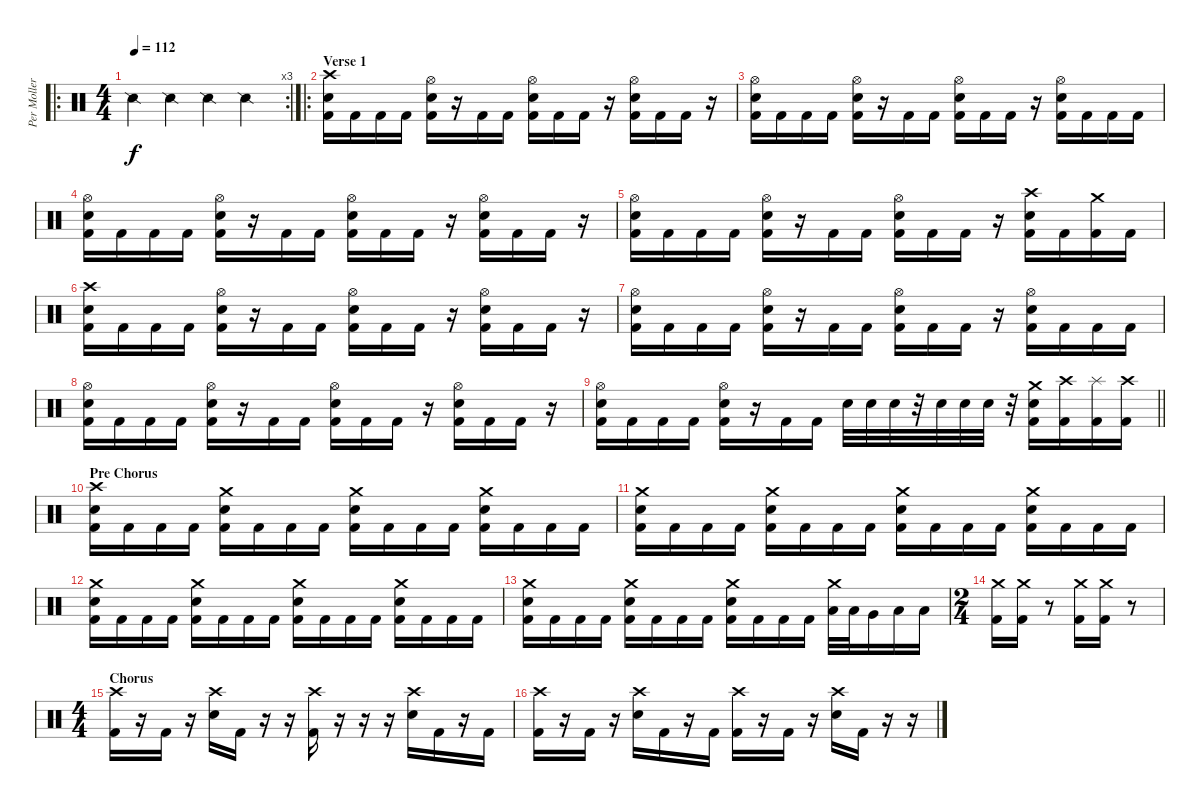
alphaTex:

\track ("Per Moller Jensen" "Per Moller") {instrument percussion}
\staff {score}
\articulation defaults
\ro
\rc 3
\ts (4 4)
\tempo 112
\clef neutral
\ks c "Snare (side stick) 2".4{dy f} "Snare (side stick) 2".4 "Snare (side stick) 2".4 "Snare (side stick) 2".4
|
\ro
\section ("" "Verse 1")
("Crash high (hit)" "Electric Snare (hit)" "Kick (hit) 2").16 "Kick (hit) 2".16 "Kick (hit) 2".16 "Kick (hit) 2".16 ("Hi-Hat (open)" "Electric Snare (hit)" "Kick (hit) 2").16 r.16 "Kick (hit) 2".16 "Kick (hit) 2".16 ("Hi-Hat (open)" "Electric Snare (hit)" "Kick (hit) 2").16 "Kick (hit) 2".16 "Kick (hit) 2".16 r.16 ("Hi-Hat (open)" "Electric Snare (hit)" "Kick (hit) 2").16 "Kick (hit) 2".16 "Kick (hit) 2".16 r.16 |
("Hi-Hat (open)" "Electric Snare (hit)" "Kick (hit) 2").16 "Kick (hit) 2".16 "Kick (hit) 2".16 "Kick (hit) 2".16 ("Hi-Hat (open)" "Electric Snare (hit)" "Kick (hit) 2").16 r.16 "Kick (hit) 2".16 "Kick (hit) 2".16 ("Hi-Hat (open)" "Electric Snare (hit)" "Kick (hit) 2").16 "Kick (hit) 2".16 "Kick (hit) 2".16 r.16 ("Hi-Hat (open)" "Electric Snare (hit)" "Kick (hit) 2").16 "Kick (hit) 2".16 "Kick (hit) 2".16 "Kick (hit) 2".16 |
("Hi-Hat (open)" "Electric Snare (hit)" "Kick (hit) 2").16 "Kick (hit) 2".16 "Kick (hit) 2".16 "Kick (hit) 2".16 ("Hi-Hat (open)" "Electric Snare (hit)" "Kick (hit) 2").16 r.16 "Kick (hit) 2".16 "Kick (hit) 2".16 ("Hi-Hat (open)" "Electric Snare (hit)" "Kick (hit) 2").16 "Kick (hit) 2".16 "Kick (hit) 2".16 r.16 ("Hi-Hat (open)" "Electric Snare (hit)" "Kick (hit) 2").16 "Kick (hit) 2".16 "Kick (hit) 2".16 r.16 |
("Hi-Hat (open)" "Electric Snare (hit)" "Kick (hit) 2").16 "Kick (hit) 2".16 "Kick (hit) 2".16 "Kick (hit) 2".16 ("Hi-Hat (open)" "Electric Snare (hit)" "Kick (hit) 2").16 r.16 "Kick (hit) 2".16 "Kick (hit) 2".16 ("Hi-Hat (open)" "Electric Snare (hit)" "Kick (hit) 2").16 "Kick (hit) 2".16 "Kick (hit) 2".16 r.16 ("Crash high (hit)" "Electric Snare (hit)" "Kick (hit) 2").16 "Kick (hit) 2".16 ("Crash medium (hit)" "Kick (hit) 2").16 "Kick (hit) 2".16 |
("Crash high (hit)" "Electric Snare (hit)" "Kick (hit) 2").16 "Kick (hit) 2".16 "Kick (hit) 2".16 "Kick (hit) 2".16 ("Hi-Hat (open)" "Electric Snare (hit)" "Kick (hit) 2").16 r.16 "Kick (hit) 2".16 "Kick (hit) 2".16 ("Hi-Hat (open)" "Electric Snare (hit)" "Kick (hit) 2").16 "Kick (hit) 2".16 "Kick (hit) 2".16 r.16 ("Hi-Hat (open)" "Electric Snare (hit)" "Kick (hit) 2").16 "Kick (hit) 2".16 "Kick (hit) 2".16 r.16 |
("Hi-Hat (open)" "Electric Snare (hit)" "Kick (hit) 2").16 "Kick (hit) 2".16 "Kick (hit) 2".16 "Kick (hit) 2".16 ("Hi-Hat (open)" "Electric Snare (hit)" "Kick (hit) 2").16 r.16 "Kick (hit) 2".16 "Kick (hit) 2".16 ("Hi-Hat (open)" "Electric Snare (hit)" "Kick (hit) 2").16 "Kick (hit) 2".16 "Kick (hit) 2".16 r.16 ("Hi-Hat (open)" "Electric Snare (hit)" "Kick (hit) 2").16 "Kick (hit) 2".16 "Kick (hit) 2".16 "Kick (hit) 2".16 |
("Hi-Hat (open)" "Electric Snare (hit)" "Kick (hit) 2").16 "Kick (hit) 2".16 "Kick (hit) 2".16 "Kick (hit) 2".16 ("Hi-Hat (open)" "Electric Snare (hit)" "Kick (hit) 2").16 r.16 "Kick (hit) 2".16 "Kick (hit) 2".16 ("Hi-Hat (open)" "Electric Snare (hit)" "Kick (hit) 2").16 "Kick (hit) 2".16 "Kick (hit) 2".16 r.16 ("Hi-Hat (open)" "Electric Snare (hit)" "Kick (hit) 2").16 "Kick (hit) 2".16 "Kick (hit) 2".16 r.16 |
\barLineRight lightlight
("Hi-Hat (open)" "Electric Snare (hit)" "Kick (hit) 2").16 "Kick (hit) 2".16 "Kick (hit) 2".16 "Kick (hit) 2".16 ("Hi-Hat (open)" "Electric Snare (hit)" "Kick (hit) 2").16 r.16 "Kick (hit) 2".16 "Kick (hit) 2".16 "Electric Snare (hit)".32 "Electric Snare (hit)".32 "Electric Snare (hit)".32 r.32 "Electric Snare (hit)".32 "Electric Snare (hit)".32 "Electric Snare (hit)".32 r.32 ("Crash medium (hit)" "Electric Snare (hit)" "Kick (hit) 2").16 ("Crash high (hit)" "Kick (hit) 2").16 ("Splash (hit)" "Kick (hit) 2").16 ("Crash high (hit)" "Kick (hit) 2").16 |
\section ("" "Pre Chorus")
("Crash high (hit)" "Electric Snare (hit)" "Kick (hit) 2").16 "Kick (hit) 2".16 "Kick (hit) 2".16 "Kick (hit) 2".16 ("Crash medium (hit)" "Electric Snare (hit)" "Kick (hit) 2").16 "Kick (hit) 2".16 "Kick (hit) 2".16 "Kick (hit) 2".16 ("Crash medium (hit)" "Electric Snare (hit)" "Kick (hit) 2").16 "Kick (hit) 2".16 "Kick (hit) 2".16 "Kick (hit) 2".16 ("Crash medium (hit)" "Electric Snare (hit)" "Kick (hit) 2").16 "Kick (hit) 2".16 "Kick (hit) 2".16 "Kick (hit) 2".16 |
("Crash medium (hit)" "Electric Snare (hit)" "Kick (hit) 2").16 "Kick (hit) 2".16 "Kick (hit) 2".16 "Kick (hit) 2".16 ("Crash medium (hit)" "Electric Snare (hit)" "Kick (hit) 2").16 "Kick (hit) 2".16 "Kick (hit) 2".16 "Kick (hit) 2".16 ("Crash medium (hit)" "Electric Snare (hit)" "Kick (hit) 2").16 "Kick (hit) 2".16 "Kick (hit) 2".16 "Kick (hit) 2".16 ("Crash medium (hit)" "Electric Snare (hit)" "Kick (hit) 2").16 "Kick (hit) 2".16 "Kick (hit) 2".16 "Kick (hit) 2".16 |
("Crash medium (hit)" "Electric Snare (hit)" "Kick (hit) 2").16 "Kick (hit) 2".16 "Kick (hit) 2".16 "Kick (hit) 2".16 ("Crash medium (hit)" "Electric Snare (hit)" "Kick (hit) 2").16 "Kick (hit) 2".16 "Kick (hit) 2".16 "Kick (hit) 2".16 ("Crash medium (hit)" "Electric Snare (hit)" "Kick (hit) 2").16 "Kick (hit) 2".16 "Kick (hit) 2".16 "Kick (hit) 2".16 ("Crash medium (hit)" "Electric Snare (hit)" "Kick (hit) 2").16 "Kick (hit) 2".16 "Kick (hit) 2".16 "Kick (hit) 2".16 |
("Crash medium (hit)" "Electric Snare (hit)" "Kick (hit) 2").16 "Kick (hit) 2".16 "Kick (hit) 2".16 "Kick (hit) 2".16 ("Crash medium (hit)" "Electric Snare (hit)" "Kick (hit) 2").16 "Kick (hit) 2".16 "Kick (hit) 2".16 "Kick (hit) 2".16 ("Crash medium (hit)" "Electric Snare (hit)" "Kick (hit) 2").16 "Kick (hit) 2".16 "Kick (hit) 2".16 "Kick (hit) 2".16 ("Crash medium (hit)" "Low Tom (hit)").32 "Low Tom (hit)".32 "Very Low Tom (hit)".16 "Low Floor Tom (hit)".16 "Low Floor Tom (hit)".16 |
\ts (2 4)
("Crash medium (hit)" "Kick (hit) 2").16 ("Crash medium (hit)" "Kick (hit) 2").16 r.8 ("Crash medium (hit)" "Kick (hit) 2").16 ("Crash medium (hit)" "Kick (hit) 2").16 r.8 |
\ts (4 4)
\section ("" "Chorus")
("Crash high (hit)" "Kick (hit) 2").16 r.16 "Kick (hit) 2".16 r.16 ("Crash high (hit)" "Electric Snare (hit)").16 "Kick (hit) 2".16 r.16 r.16 ("Crash high (hit)" "Kick (hit) 2").16 r.16 r.16 r.16 ("Crash high (hit)" "Electric Snare (hit)").16 "Kick (hit) 2".16 r.16 "Kick (hit) 2".16 |
("Crash high (hit)" "Kick (hit) 2").16 r.16 "Kick (hit) 2".16 r.16 ("Crash high (hit)" "Electric Snare (hit)").16 "Kick (hit) 2".16 r.16 "Kick (hit) 2".16 ("Crash high (hit)" "Kick (hit) 2").16 r.16 "Kick (hit) 2".16 r.16 ("Crash high (hit)" "Electric Snare (hit)").16 "Kick (hit) 2".16 r.16 r.16
